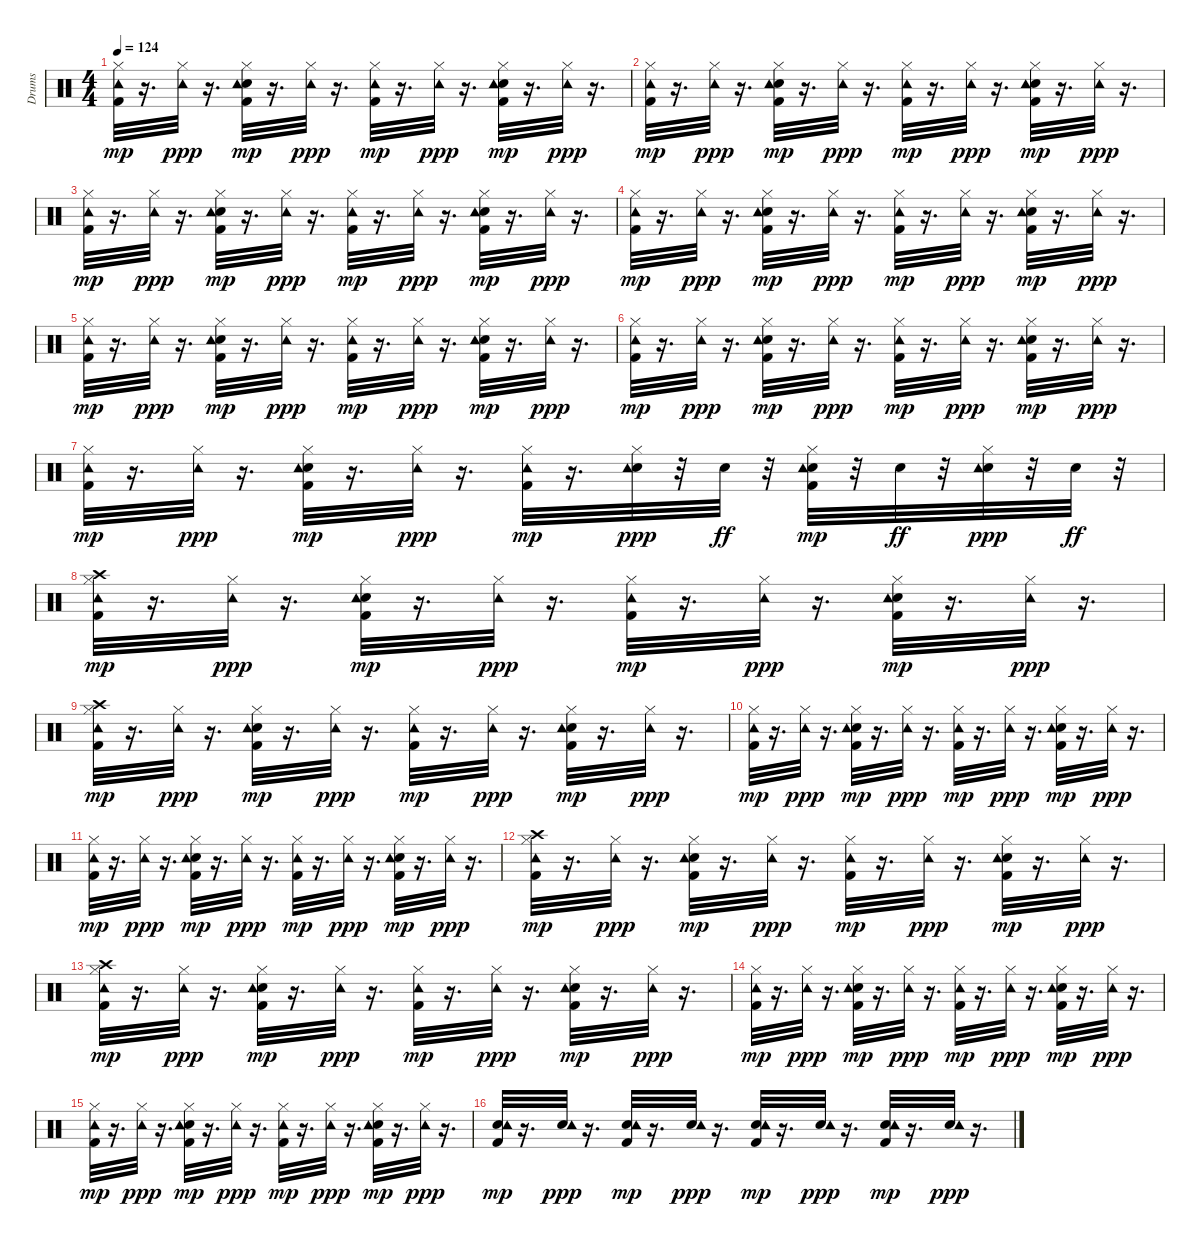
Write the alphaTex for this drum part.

\track ("Drums" "Drums") {instrument percussion}
\staff {score}
\articulation defaults
\ts (4 4)
\tempo 124
\clef neutral
\ks c
("Kick (hit) 2" "Hi-Hat (closed)" "Tambourine (hit)").32{dy mp} r.16{d} ("Hi-Hat (closed)" "Tambourine (hit)").32{dy ppp} r.16{d} ("Kick (hit) 2" "Electric Snare (hit)" "Hi-Hat (closed)" "Tambourine (hit)").32{dy mp} r.16{d} ("Hi-Hat (closed)" "Tambourine (hit)").32{dy ppp} r.16{d} ("Kick (hit) 2" "Hi-Hat (closed)" "Tambourine (hit)").32{dy mp} r.16{d} ("Hi-Hat (closed)" "Tambourine (hit)").32{dy ppp} r.16{d} ("Kick (hit) 2" "Electric Snare (hit)" "Hi-Hat (closed)" "Tambourine (hit)").32{dy mp} r.16{d} ("Hi-Hat (closed)" "Tambourine (hit)").32{dy ppp} r.16{d} |
("Kick (hit) 2" "Hi-Hat (closed)" "Tambourine (hit)").32{dy mp} r.16{d} ("Hi-Hat (closed)" "Tambourine (hit)").32{dy ppp} r.16{d} ("Kick (hit) 2" "Electric Snare (hit)" "Hi-Hat (closed)" "Tambourine (hit)").32{dy mp} r.16{d} ("Hi-Hat (closed)" "Tambourine (hit)").32{dy ppp} r.16{d} ("Kick (hit) 2" "Hi-Hat (closed)" "Tambourine (hit)").32{dy mp} r.16{d} ("Hi-Hat (closed)" "Tambourine (hit)").32{dy ppp} r.16{d} ("Kick (hit) 2" "Electric Snare (hit)" "Hi-Hat (closed)" "Tambourine (hit)").32{dy mp} r.16{d} ("Hi-Hat (closed)" "Tambourine (hit)").32{dy ppp} r.16{d} |
("Kick (hit) 2" "Hi-Hat (closed)" "Tambourine (hit)").32{dy mp} r.16{d} ("Hi-Hat (closed)" "Tambourine (hit)").32{dy ppp} r.16{d} ("Kick (hit) 2" "Electric Snare (hit)" "Hi-Hat (closed)" "Tambourine (hit)").32{dy mp} r.16{d} ("Hi-Hat (closed)" "Tambourine (hit)").32{dy ppp} r.16{d} ("Kick (hit) 2" "Hi-Hat (closed)" "Tambourine (hit)").32{dy mp} r.16{d} ("Hi-Hat (closed)" "Tambourine (hit)").32{dy ppp} r.16{d} ("Kick (hit) 2" "Electric Snare (hit)" "Hi-Hat (closed)" "Tambourine (hit)").32{dy mp} r.16{d} ("Hi-Hat (closed)" "Tambourine (hit)").32{dy ppp} r.16{d} |
("Kick (hit) 2" "Hi-Hat (closed)" "Tambourine (hit)").32{dy mp} r.16{d} ("Hi-Hat (closed)" "Tambourine (hit)").32{dy ppp} r.16{d} ("Kick (hit) 2" "Electric Snare (hit)" "Hi-Hat (closed)" "Tambourine (hit)").32{dy mp} r.16{d} ("Hi-Hat (closed)" "Tambourine (hit)").32{dy ppp} r.16{d} ("Kick (hit) 2" "Hi-Hat (closed)" "Tambourine (hit)").32{dy mp} r.16{d} ("Hi-Hat (closed)" "Tambourine (hit)").32{dy ppp} r.16{d} ("Kick (hit) 2" "Electric Snare (hit)" "Hi-Hat (closed)" "Tambourine (hit)").32{dy mp} r.16{d} ("Hi-Hat (closed)" "Tambourine (hit)").32{dy ppp} r.16{d} |
("Kick (hit) 2" "Hi-Hat (closed)" "Tambourine (hit)").32{dy mp} r.16{d} ("Hi-Hat (closed)" "Tambourine (hit)").32{dy ppp} r.16{d} ("Kick (hit) 2" "Electric Snare (hit)" "Hi-Hat (closed)" "Tambourine (hit)").32{dy mp} r.16{d} ("Hi-Hat (closed)" "Tambourine (hit)").32{dy ppp} r.16{d} ("Kick (hit) 2" "Hi-Hat (closed)" "Tambourine (hit)").32{dy mp} r.16{d} ("Hi-Hat (closed)" "Tambourine (hit)").32{dy ppp} r.16{d} ("Kick (hit) 2" "Electric Snare (hit)" "Hi-Hat (closed)" "Tambourine (hit)").32{dy mp} r.16{d} ("Hi-Hat (closed)" "Tambourine (hit)").32{dy ppp} r.16{d} |
("Kick (hit) 2" "Hi-Hat (closed)" "Tambourine (hit)").32{dy mp} r.16{d} ("Hi-Hat (closed)" "Tambourine (hit)").32{dy ppp} r.16{d} ("Kick (hit) 2" "Electric Snare (hit)" "Hi-Hat (closed)" "Tambourine (hit)").32{dy mp} r.16{d} ("Hi-Hat (closed)" "Tambourine (hit)").32{dy ppp} r.16{d} ("Kick (hit) 2" "Hi-Hat (closed)" "Tambourine (hit)").32{dy mp} r.16{d} ("Hi-Hat (closed)" "Tambourine (hit)").32{dy ppp} r.16{d} ("Kick (hit) 2" "Electric Snare (hit)" "Hi-Hat (closed)" "Tambourine (hit)").32{dy mp} r.16{d} ("Hi-Hat (closed)" "Tambourine (hit)").32{dy ppp} r.16{d} |
("Kick (hit) 2" "Hi-Hat (closed)" "Tambourine (hit)").32{dy mp} r.16{d} ("Hi-Hat (closed)" "Tambourine (hit)").32{dy ppp} r.16{d} ("Kick (hit) 2" "Electric Snare (hit)" "Hi-Hat (closed)" "Tambourine (hit)").32{dy mp} r.16{d} ("Hi-Hat (closed)" "Tambourine (hit)").32{dy ppp} r.16{d} ("Kick (hit) 2" "Hi-Hat (closed)" "Tambourine (hit)").32{dy mp} r.16{d} ("Electric Snare (hit)" "Hi-Hat (closed)" "Tambourine (hit)").32{dy ppp} r.32 "Electric Snare (hit)".32{dy ff} r.32 ("Kick (hit) 2" "Electric Snare (hit)" "Hi-Hat (closed)" "Tambourine (hit)").32{dy mp} r.32 "Electric Snare (hit)".32{dy ff} r.32 ("Electric Snare (hit)" "Hi-Hat (closed)" "Tambourine (hit)").32{dy ppp} r.32 "Electric Snare (hit)".32{dy ff} r.32 |
("Kick (hit) 2" "Hi-Hat (closed)" "Crash high (hit)" "Tambourine (hit)").32{dy mp} r.16{d} ("Hi-Hat (closed)" "Tambourine (hit)").32{dy ppp} r.16{d} ("Kick (hit) 2" "Electric Snare (hit)" "Hi-Hat (closed)" "Tambourine (hit)").32{dy mp} r.16{d} ("Hi-Hat (closed)" "Tambourine (hit)").32{dy ppp} r.16{d} ("Kick (hit) 2" "Hi-Hat (closed)" "Tambourine (hit)").32{dy mp} r.16{d} ("Hi-Hat (closed)" "Tambourine (hit)").32{dy ppp} r.16{d} ("Kick (hit) 2" "Electric Snare (hit)" "Hi-Hat (closed)" "Tambourine (hit)").32{dy mp} r.16{d} ("Hi-Hat (closed)" "Tambourine (hit)").32{dy ppp} r.16{d} |
("Kick (hit) 2" "Hi-Hat (closed)" "Crash high (hit)" "Tambourine (hit)").32{dy mp} r.16{d} ("Hi-Hat (closed)" "Tambourine (hit)").32{dy ppp} r.16{d} ("Kick (hit) 2" "Electric Snare (hit)" "Hi-Hat (closed)" "Tambourine (hit)").32{dy mp} r.16{d} ("Hi-Hat (closed)" "Tambourine (hit)").32{dy ppp} r.16{d} ("Kick (hit) 2" "Hi-Hat (closed)" "Tambourine (hit)").32{dy mp} r.16{d} ("Hi-Hat (closed)" "Tambourine (hit)").32{dy ppp} r.16{d} ("Kick (hit) 2" "Electric Snare (hit)" "Hi-Hat (closed)" "Tambourine (hit)").32{dy mp} r.16{d} ("Hi-Hat (closed)" "Tambourine (hit)").32{dy ppp} r.16{d} |
("Kick (hit) 2" "Hi-Hat (closed)" "Tambourine (hit)").32{dy mp} r.16{d} ("Hi-Hat (closed)" "Tambourine (hit)").32{dy ppp} r.16{d} ("Kick (hit) 2" "Electric Snare (hit)" "Hi-Hat (closed)" "Tambourine (hit)").32{dy mp} r.16{d} ("Hi-Hat (closed)" "Tambourine (hit)").32{dy ppp} r.16{d} ("Kick (hit) 2" "Hi-Hat (closed)" "Tambourine (hit)").32{dy mp} r.16{d} ("Hi-Hat (closed)" "Tambourine (hit)").32{dy ppp} r.16{d} ("Kick (hit) 2" "Electric Snare (hit)" "Hi-Hat (closed)" "Tambourine (hit)").32{dy mp} r.16{d} ("Hi-Hat (closed)" "Tambourine (hit)").32{dy ppp} r.16{d} |
("Kick (hit) 2" "Hi-Hat (closed)" "Tambourine (hit)").32{dy mp} r.16{d} ("Hi-Hat (closed)" "Tambourine (hit)").32{dy ppp} r.16{d} ("Kick (hit) 2" "Electric Snare (hit)" "Hi-Hat (closed)" "Tambourine (hit)").32{dy mp} r.16{d} ("Hi-Hat (closed)" "Tambourine (hit)").32{dy ppp} r.16{d} ("Kick (hit) 2" "Hi-Hat (closed)" "Tambourine (hit)").32{dy mp} r.16{d} ("Hi-Hat (closed)" "Tambourine (hit)").32{dy ppp} r.16{d} ("Kick (hit) 2" "Electric Snare (hit)" "Hi-Hat (closed)" "Tambourine (hit)").32{dy mp} r.16{d} ("Hi-Hat (closed)" "Tambourine (hit)").32{dy ppp} r.16{d} |
("Kick (hit) 2" "Hi-Hat (closed)" "Crash high (hit)" "Tambourine (hit)").32{dy mp} r.16{d} ("Hi-Hat (closed)" "Tambourine (hit)").32{dy ppp} r.16{d} ("Kick (hit) 2" "Electric Snare (hit)" "Hi-Hat (closed)" "Tambourine (hit)").32{dy mp} r.16{d} ("Hi-Hat (closed)" "Tambourine (hit)").32{dy ppp} r.16{d} ("Kick (hit) 2" "Hi-Hat (closed)" "Tambourine (hit)").32{dy mp} r.16{d} ("Hi-Hat (closed)" "Tambourine (hit)").32{dy ppp} r.16{d} ("Kick (hit) 2" "Electric Snare (hit)" "Hi-Hat (closed)" "Tambourine (hit)").32{dy mp} r.16{d} ("Hi-Hat (closed)" "Tambourine (hit)").32{dy ppp} r.16{d} |
("Kick (hit) 2" "Hi-Hat (closed)" "Crash high (hit)" "Tambourine (hit)").32{dy mp} r.16{d} ("Hi-Hat (closed)" "Tambourine (hit)").32{dy ppp} r.16{d} ("Kick (hit) 2" "Electric Snare (hit)" "Hi-Hat (closed)" "Tambourine (hit)").32{dy mp} r.16{d} ("Hi-Hat (closed)" "Tambourine (hit)").32{dy ppp} r.16{d} ("Kick (hit) 2" "Hi-Hat (closed)" "Tambourine (hit)").32{dy mp} r.16{d} ("Hi-Hat (closed)" "Tambourine (hit)").32{dy ppp} r.16{d} ("Kick (hit) 2" "Electric Snare (hit)" "Hi-Hat (closed)" "Tambourine (hit)").32{dy mp} r.16{d} ("Hi-Hat (closed)" "Tambourine (hit)").32{dy ppp} r.16{d} |
("Kick (hit) 2" "Hi-Hat (closed)" "Tambourine (hit)").32{dy mp} r.16{d} ("Hi-Hat (closed)" "Tambourine (hit)").32{dy ppp} r.16{d} ("Kick (hit) 2" "Electric Snare (hit)" "Hi-Hat (closed)" "Tambourine (hit)").32{dy mp} r.16{d} ("Hi-Hat (closed)" "Tambourine (hit)").32{dy ppp} r.16{d} ("Kick (hit) 2" "Hi-Hat (closed)" "Tambourine (hit)").32{dy mp} r.16{d} ("Hi-Hat (closed)" "Tambourine (hit)").32{dy ppp} r.16{d} ("Kick (hit) 2" "Electric Snare (hit)" "Hi-Hat (closed)" "Tambourine (hit)").32{dy mp} r.16{d} ("Hi-Hat (closed)" "Tambourine (hit)").32{dy ppp} r.16{d} |
("Kick (hit) 2" "Hi-Hat (closed)" "Tambourine (hit)").32{dy mp} r.16{d} ("Hi-Hat (closed)" "Tambourine (hit)").32{dy ppp} r.16{d} ("Kick (hit) 2" "Electric Snare (hit)" "Hi-Hat (closed)" "Tambourine (hit)").32{dy mp} r.16{d} ("Hi-Hat (closed)" "Tambourine (hit)").32{dy ppp} r.16{d} ("Kick (hit) 2" "Hi-Hat (closed)" "Tambourine (hit)").32{dy mp} r.16{d} ("Hi-Hat (closed)" "Tambourine (hit)").32{dy ppp} r.16{d} ("Kick (hit) 2" "Electric Snare (hit)" "Hi-Hat (closed)" "Tambourine (hit)").32{dy mp} r.16{d} ("Hi-Hat (closed)" "Tambourine (hit)").32{dy ppp} r.16{d} |
("Kick (hit) 2" "Electric Snare (hit)" "Tambourine (hit)").32{dy mp} r.16{d} ("Electric Snare (hit)" "Tambourine (hit)").32{dy ppp} r.16{d} ("Kick (hit) 2" "Electric Snare (hit)" "Tambourine (hit)").32{dy mp} r.16{d} ("Electric Snare (hit)" "Tambourine (hit)").32{dy ppp} r.16{d} ("Kick (hit) 2" "Electric Snare (hit)" "Tambourine (hit)").32{dy mp} r.16{d} ("Electric Snare (hit)" "Tambourine (hit)").32{dy ppp} r.16{d} ("Kick (hit) 2" "Electric Snare (hit)" "Tambourine (hit)").32{dy mp} r.16{d} ("Electric Snare (hit)" "Tambourine (hit)").32{dy ppp} r.16{d}
